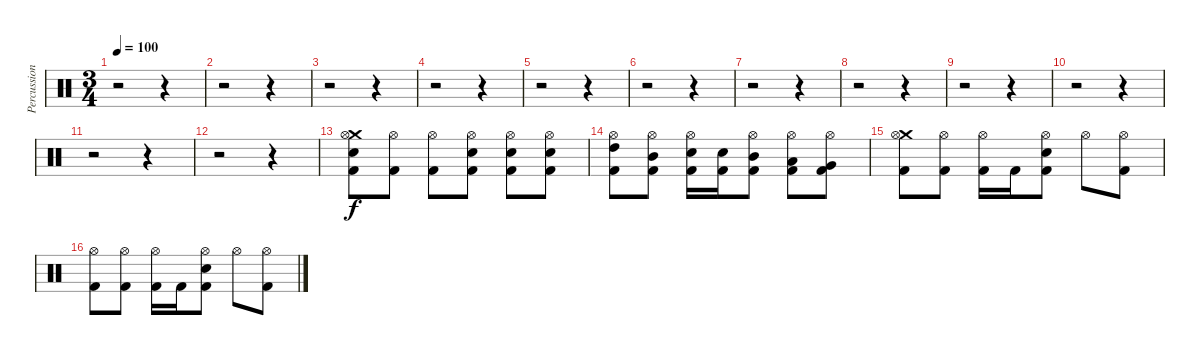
\track ("Percussion" "Percussion") {instrument percussion}
\staff {score}
\articulation defaults
\ts (3 4)
\tempo 100
\clef neutral
\ks c
r.2{dy f} r.4 |
r.2 r.4 |
r.2 r.4 |
r.2 r.4 |
r.2 r.4 |
r.2 r.4 |
r.2 r.4 |
r.2 r.4 |
r.2 r.4 |
r.2 r.4 |
r.2 r.4 |
r.2 r.4 |
("Crash medium (hit)" "Hi-Hat (open)" "Electric Snare (hit)" "Kick (hit) 2").8 ("Hi-Hat (open)" "Kick (hit) 2").8 ("Hi-Hat (open)" "Kick (hit) 2").8 ("Hi-Hat (open)" "Electric Snare (hit)" "Kick (hit) 2").8 ("Hi-Hat (open)" "Electric Snare (hit)" "Kick (hit) 2").8 ("Hi-Hat (open)" "Electric Snare (hit)" "Kick (hit) 2").8 |
("Hi-Hat (open)" "High Tom (hit)" "Kick (hit) 2").8 ("Hi-Hat (open)" "Mid Tom (hit)" "Kick (hit) 2").8 ("Hi-Hat (open)" "Electric Snare (hit)" "Kick (hit) 2").16 ("Electric Snare (hit)" "Kick (hit) 2").16 ("Hi-Hat (open)" "Mid Tom (hit)" "Kick (hit) 2").8 ("Hi-Hat (open)" "Low Tom (hit)" "Kick (hit) 2").8 ("Hi-Hat (open)" "Very Low Tom (hit)" "Kick (hit) 2").8 |
("Crash medium (hit)" "Hi-Hat (open)" "Kick (hit) 2").8 ("Hi-Hat (open)" "Kick (hit) 2").8 ("Hi-Hat (open)" "Kick (hit) 2").16 "Kick (hit) 2".16 ("Hi-Hat (open)" "Electric Snare (hit)" "Kick (hit) 2").8 "Hi-Hat (open)".8 ("Hi-Hat (open)" "Kick (hit) 2").8 |
("Hi-Hat (open)" "Kick (hit) 2").8 ("Hi-Hat (open)" "Kick (hit) 2").8 ("Hi-Hat (open)" "Kick (hit) 2").16 "Kick (hit) 2".16 ("Hi-Hat (open)" "Electric Snare (hit)" "Kick (hit) 2").8 "Hi-Hat (open)".8 ("Hi-Hat (open)" "Kick (hit) 2").8
